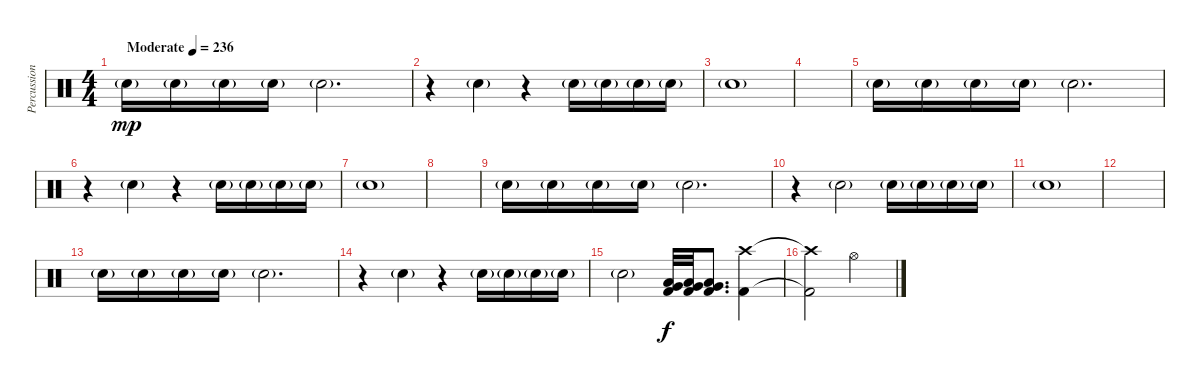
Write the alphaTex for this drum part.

\track ("Percussion" "Percussion") {instrument percussion}
\staff {score}
\articulation defaults
\ts (4 4)
\tempo (236 "Moderate")
\clef neutral
\ks c "Snare (hit) 2"{g}.16{dy mp} "Snare (hit) 2"{g}.16 "Snare (hit) 2"{g}.16 "Snare (hit) 2"{g}.16 "Snare (hit) 2"{g}.2{d}
|
r.4 "Snare (hit) 2"{g}.4 r.4 "Snare (hit) 2"{g}.16 "Snare (hit) 2"{g}.16 "Snare (hit) 2"{g}.16 "Snare (hit) 2"{g}.16 |
"Snare (hit) 2"{g}.1 |
|
"Snare (hit) 2"{g}.16 "Snare (hit) 2"{g}.16 "Snare (hit) 2"{g}.16 "Snare (hit) 2"{g}.16 "Snare (hit) 2"{g}.2{d} |
r.4 "Snare (hit) 2"{g}.4 r.4 "Snare (hit) 2"{g}.16 "Snare (hit) 2"{g}.16 "Snare (hit) 2"{g}.16 "Snare (hit) 2"{g}.16 |
"Snare (hit) 2"{g}.1 |
|
"Snare (hit) 2"{g}.16 "Snare (hit) 2"{g}.16 "Snare (hit) 2"{g}.16 "Snare (hit) 2"{g}.16 "Snare (hit) 2"{g}.2{d} |
r.4 "Snare (hit) 2"{g}.2 "Snare (hit) 2"{g}.16 "Snare (hit) 2"{g}.16 "Snare (hit) 2"{g}.16 "Snare (hit) 2"{g}.16 |
"Snare (hit) 2"{g}.1 |
|
"Snare (hit) 2"{g}.16 "Snare (hit) 2"{g}.16 "Snare (hit) 2"{g}.16 "Snare (hit) 2"{g}.16 "Snare (hit) 2"{g}.2{d} |
r.4 "Snare (hit) 2"{g}.4 r.4 "Snare (hit) 2"{g}.16 "Snare (hit) 2"{g}.16 "Snare (hit) 2"{g}.16 "Snare (hit) 2"{g}.16 |
"Snare (hit) 2"{g}.2 ("Very Low Tom (hit)" "Low Floor Tom (hit)" "Kick (hit) 2").32{dy f} ("Low Floor Tom (hit)" "Very Low Tom (hit)" "Kick (hit) 2").32 ("Low Floor Tom (hit)" "Very Low Tom (hit)" "Kick (hit) 2").8{d} ("Crash high (hit)" "Kick (hit) 2").4 |
("Crash high (hit)"{t} "Kick (hit) 2"{t}).2 "Hi-Hat (open)".2
